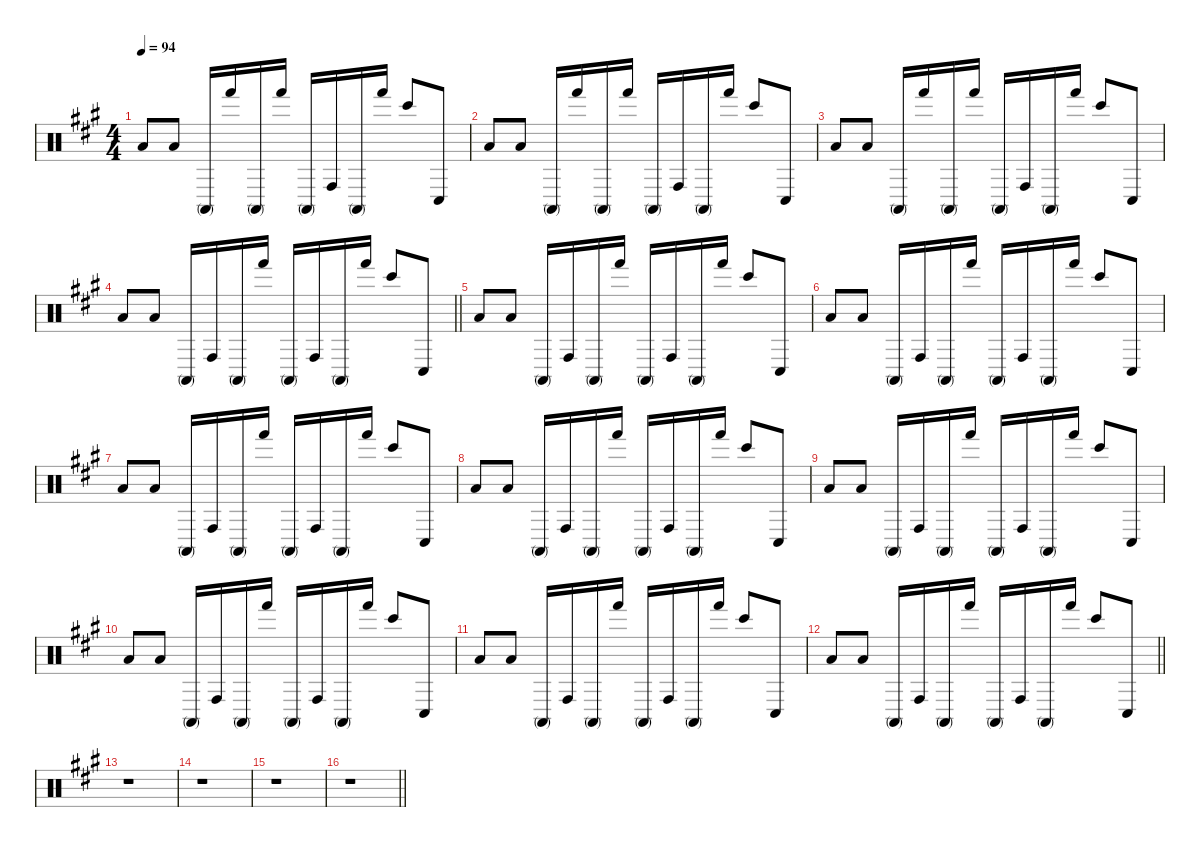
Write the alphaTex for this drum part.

\defaultSystemsLayout 4
\hideDynamics
\bracketExtendMode nobrackets
\singleTrackTrackNamePolicy hidden
\multiTrackTrackNamePolicy hidden
\firstSystemTrackNameMode fullname
\firstSystemTrackNameOrientation horizontal
\otherSystemsTrackNameOrientation horizontal
\track ("Bongos" "drm.") {defaultSystemsLayout 4 instrument percussion}
\staff {score}
\articulation defaults
\ts (4 4)
\tempo 94
\clef neutral
\ks a "Low Floor Tom (hit)"{acc forcenatural}.8{dy f beam Up} "Low Floor Tom (hit)"{acc forcenatural}.8{beam Up} "Conga high (mute)"{acc forcenatural}.16{beam Up} "Hand (hit)"{acc forcenatural}.16{beam Up} "Conga high (mute)"{acc forcenatural}.16{beam Up} "Hand (hit)"{acc forcenatural}.16{beam Up} "Conga high (mute)"{acc forcenatural}.16{beam Up} "Conga high (hit)"{acc forcenatural}.16{beam Up} "Conga high (mute)"{acc forcenatural}.16{beam Up} "Hand (hit)"{acc forcenatural}.16{beam Up} "Bongo High (hit)"{acc forcenatural}.8{beam Up} "Conga low (hit)"{acc forcenatural}.8{beam Up}
|
"Low Floor Tom (hit)"{acc forcenatural}.8{beam Up} "Low Floor Tom (hit)"{acc forcenatural}.8{beam Up} "Conga high (mute)"{acc forcenatural}.16{beam Up} "Hand (hit)"{acc forcenatural}.16{beam Up} "Conga high (mute)"{acc forcenatural}.16{beam Up} "Hand (hit)"{acc forcenatural}.16{beam Up} "Conga high (mute)"{acc forcenatural}.16{beam Up} "Conga high (hit)"{acc forcenatural}.16{beam Up} "Conga high (mute)"{acc forcenatural}.16{beam Up} "Hand (hit)"{acc forcenatural}.16{beam Up} "Bongo High (hit)"{acc forcenatural}.8{beam Up} "Conga low (hit)"{acc forcenatural}.8{beam Up} |
"Low Floor Tom (hit)"{acc forcenatural}.8{beam Up} "Low Floor Tom (hit)"{acc forcenatural}.8{beam Up} "Conga high (mute)"{acc forcenatural}.16{beam Up} "Hand (hit)"{acc forcenatural}.16{beam Up} "Conga high (mute)"{acc forcenatural}.16{beam Up} "Hand (hit)"{acc forcenatural}.16{beam Up} "Conga high (mute)"{acc forcenatural}.16{beam Up} "Conga high (hit)"{acc forcenatural}.16{beam Up} "Conga high (mute)"{acc forcenatural}.16{beam Up} "Hand (hit)"{acc forcenatural}.16{beam Up} "Bongo High (hit)"{acc forcenatural}.8{beam Up} "Conga low (hit)"{acc forcenatural}.8{beam Up} |
\barLineRight lightlight "Low Floor Tom (hit)"{acc forcenatural}.8{beam Up} "Low Floor Tom (hit)"{acc forcenatural}.8{beam Up} "Conga high (mute)"{acc forcenatural}.16{beam Up} "Conga high (hit)"{acc forcenatural}.16{beam Up} "Conga high (mute)"{acc forcenatural}.16{beam Up} "Hand (hit)"{acc forcenatural}.16{beam Up} "Conga high (mute)"{acc forcenatural}.16{beam Up} "Conga high (hit)"{acc forcenatural}.16{beam Up} "Conga high (mute)"{acc forcenatural}.16{beam Up} "Hand (hit)"{acc forcenatural}.16{beam Up} "Bongo High (hit)"{acc forcenatural}.8{beam Up} "Conga low (hit)"{acc forcenatural}.8{beam Up}
|
"Low Floor Tom (hit)"{acc forcenatural}.8{beam Up} "Low Floor Tom (hit)"{acc forcenatural}.8{beam Up} "Conga high (mute)"{acc forcenatural}.16{beam Up} "Conga high (hit)"{acc forcenatural}.16{beam Up} "Conga high (mute)"{acc forcenatural}.16{beam Up} "Hand (hit)"{acc forcenatural}.16{beam Up} "Conga high (mute)"{acc forcenatural}.16{beam Up} "Conga high (hit)"{acc forcenatural}.16{beam Up} "Conga high (mute)"{acc forcenatural}.16{beam Up} "Hand (hit)"{acc forcenatural}.16{beam Up} "Bongo High (hit)"{acc forcenatural}.8{beam Up} "Conga low (hit)"{acc forcenatural}.8{beam Up} |
"Low Floor Tom (hit)"{acc forcenatural}.8{beam Up} "Low Floor Tom (hit)"{acc forcenatural}.8{beam Up} "Conga high (mute)"{acc forcenatural}.16{beam Up} "Conga high (hit)"{acc forcenatural}.16{beam Up} "Conga high (mute)"{acc forcenatural}.16{beam Up} "Hand (hit)"{acc forcenatural}.16{beam Up} "Conga high (mute)"{acc forcenatural}.16{beam Up} "Conga high (hit)"{acc forcenatural}.16{beam Up} "Conga high (mute)"{acc forcenatural}.16{beam Up} "Hand (hit)"{acc forcenatural}.16{beam Up} "Bongo High (hit)"{acc forcenatural}.8{beam Up} "Conga low (hit)"{acc forcenatural}.8{beam Up} |
"Low Floor Tom (hit)"{acc forcenatural}.8{beam Up} "Low Floor Tom (hit)"{acc forcenatural}.8{beam Up} "Conga high (mute)"{acc forcenatural}.16{beam Up} "Conga high (hit)"{acc forcenatural}.16{beam Up} "Conga high (mute)"{acc forcenatural}.16{beam Up} "Hand (hit)"{acc forcenatural}.16{beam Up} "Conga high (mute)"{acc forcenatural}.16{beam Up} "Conga high (hit)"{acc forcenatural}.16{beam Up} "Conga high (mute)"{acc forcenatural}.16{beam Up} "Hand (hit)"{acc forcenatural}.16{beam Up} "Bongo High (hit)"{acc forcenatural}.8{beam Up} "Conga low (hit)"{acc forcenatural}.8{beam Up} |
"Low Floor Tom (hit)"{acc forcenatural}.8{beam Up} "Low Floor Tom (hit)"{acc forcenatural}.8{beam Up} "Conga high (mute)"{acc forcenatural}.16{beam Up} "Conga high (hit)"{acc forcenatural}.16{beam Up} "Conga high (mute)"{acc forcenatural}.16{beam Up} "Hand (hit)"{acc forcenatural}.16{beam Up} "Conga high (mute)"{acc forcenatural}.16{beam Up} "Conga high (hit)"{acc forcenatural}.16{beam Up} "Conga high (mute)"{acc forcenatural}.16{beam Up} "Hand (hit)"{acc forcenatural}.16{beam Up} "Bongo High (hit)"{acc forcenatural}.8{beam Up} "Conga low (hit)"{acc forcenatural}.8{beam Up} |
"Low Floor Tom (hit)"{acc forcenatural}.8{beam Up} "Low Floor Tom (hit)"{acc forcenatural}.8{beam Up} "Conga high (mute)"{acc forcenatural}.16{beam Up} "Conga high (hit)"{acc forcenatural}.16{beam Up} "Conga high (mute)"{acc forcenatural}.16{beam Up} "Hand (hit)"{acc forcenatural}.16{beam Up} "Conga high (mute)"{acc forcenatural}.16{beam Up} "Conga high (hit)"{acc forcenatural}.16{beam Up} "Conga high (mute)"{acc forcenatural}.16{beam Up} "Hand (hit)"{acc forcenatural}.16{beam Up} "Bongo High (hit)"{acc forcenatural}.8{beam Up} "Conga low (hit)"{acc forcenatural}.8{beam Up} |
"Low Floor Tom (hit)"{acc forcenatural}.8{beam Up} "Low Floor Tom (hit)"{acc forcenatural}.8{beam Up} "Conga high (mute)"{acc forcenatural}.16{beam Up} "Conga high (hit)"{acc forcenatural}.16{beam Up} "Conga high (mute)"{acc forcenatural}.16{beam Up} "Hand (hit)"{acc forcenatural}.16{beam Up} "Conga high (mute)"{acc forcenatural}.16{beam Up} "Conga high (hit)"{acc forcenatural}.16{beam Up} "Conga high (mute)"{acc forcenatural}.16{beam Up} "Hand (hit)"{acc forcenatural}.16{beam Up} "Bongo High (hit)"{acc forcenatural}.8{beam Up} "Conga low (hit)"{acc forcenatural}.8{beam Up} |
"Low Floor Tom (hit)"{acc forcenatural}.8{beam Up} "Low Floor Tom (hit)"{acc forcenatural}.8{beam Up} "Conga high (mute)"{acc forcenatural}.16{beam Up} "Conga high (hit)"{acc forcenatural}.16{beam Up} "Conga high (mute)"{acc forcenatural}.16{beam Up} "Hand (hit)"{acc forcenatural}.16{beam Up} "Conga high (mute)"{acc forcenatural}.16{beam Up} "Conga high (hit)"{acc forcenatural}.16{beam Up} "Conga high (mute)"{acc forcenatural}.16{beam Up} "Hand (hit)"{acc forcenatural}.16{beam Up} "Bongo High (hit)"{acc forcenatural}.8{beam Up} "Conga low (hit)"{acc forcenatural}.8{beam Up} |
\barLineRight lightlight "Low Floor Tom (hit)"{acc forcenatural}.8{beam Up} "Low Floor Tom (hit)"{acc forcenatural}.8{beam Up} "Conga high (mute)"{acc forcenatural}.16{beam Up} "Conga high (hit)"{acc forcenatural}.16{beam Up} "Conga high (mute)"{acc forcenatural}.16{beam Up} "Hand (hit)"{acc forcenatural}.16{beam Up} "Conga high (mute)"{acc forcenatural}.16{beam Up} "Conga high (hit)"{acc forcenatural}.16{beam Up} "Conga high (mute)"{acc forcenatural}.16{beam Up} "Hand (hit)"{acc forcenatural}.16{beam Up} "Bongo High (hit)"{acc forcenatural}.8{beam Up} "Conga low (hit)"{acc forcenatural}.8{beam Up}
|
r.1{beam Down} |
r.1{beam Down} |
r.1{beam Down} |
\barLineRight lightlight
r.1{beam Down}
